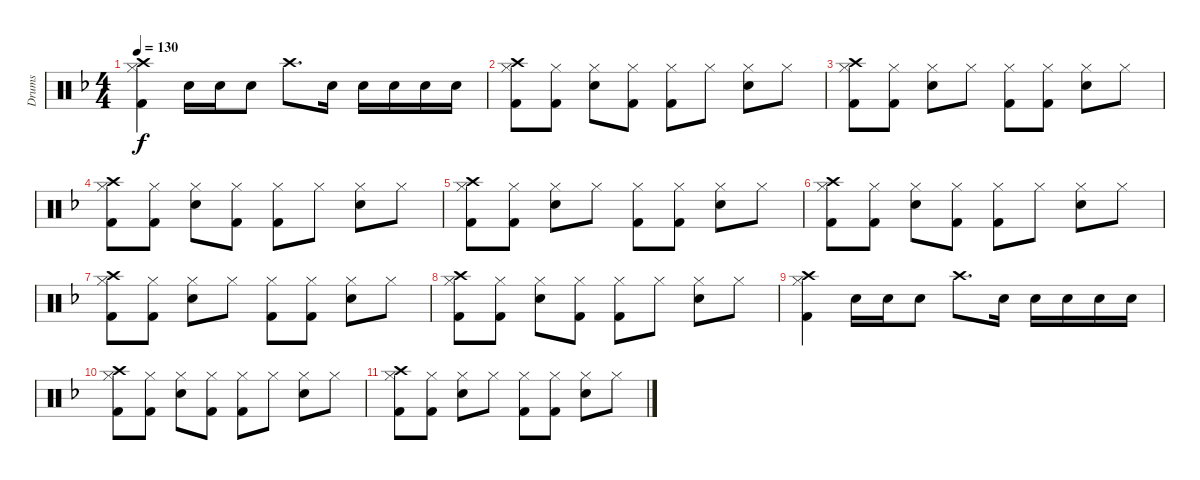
\track ("Drums" "Drums") {instrument percussion}
\staff {score}
\articulation defaults
\ts (4 4)
\tempo 130
\clef neutral
\ks dminor
("Hi-Hat (closed)" "Kick (hit) 2" "Crash high (hit)").4{dy f} "Snare (hit) 2".16 "Snare (hit) 2".16 "Snare (hit) 2".8 "Crash high (hit)".8{d} "Snare (hit) 2".16 "Snare (hit) 2".16 "Snare (hit) 2".16 "Snare (hit) 2".16 "Snare (hit) 2".16 |
("Hi-Hat (closed)" "Kick (hit) 2" "Crash high (hit)").8 ("Hi-Hat (closed)" "Kick (hit) 2").8 ("Hi-Hat (closed)" "Snare (hit) 2").8 ("Hi-Hat (closed)" "Kick (hit) 2").8 ("Hi-Hat (closed)" "Kick (hit) 2").8 "Hi-Hat (closed)".8 ("Hi-Hat (closed)" "Snare (hit) 2").8 "Hi-Hat (closed)".8 |
("Hi-Hat (closed)" "Kick (hit) 2" "Crash high (hit)").8 ("Hi-Hat (closed)" "Kick (hit) 2").8 ("Hi-Hat (closed)" "Snare (hit) 2").8 "Hi-Hat (closed)".8 ("Hi-Hat (closed)" "Kick (hit) 2").8 ("Hi-Hat (closed)" "Kick (hit) 2").8 ("Hi-Hat (closed)" "Snare (hit) 2").8 "Hi-Hat (closed)".8 |
("Hi-Hat (closed)" "Kick (hit) 2" "Crash high (hit)").8 ("Hi-Hat (closed)" "Kick (hit) 2").8 ("Hi-Hat (closed)" "Snare (hit) 2").8 ("Hi-Hat (closed)" "Kick (hit) 2").8 ("Hi-Hat (closed)" "Kick (hit) 2").8 "Hi-Hat (closed)".8 ("Hi-Hat (closed)" "Snare (hit) 2").8 "Hi-Hat (closed)".8 |
("Hi-Hat (closed)" "Kick (hit) 2" "Crash high (hit)").8 ("Hi-Hat (closed)" "Kick (hit) 2").8 ("Hi-Hat (closed)" "Snare (hit) 2").8 "Hi-Hat (closed)".8 ("Hi-Hat (closed)" "Kick (hit) 2").8 ("Hi-Hat (closed)" "Kick (hit) 2").8 ("Hi-Hat (closed)" "Snare (hit) 2").8 "Hi-Hat (closed)".8 |
("Hi-Hat (closed)" "Kick (hit) 2" "Crash high (hit)").8 ("Hi-Hat (closed)" "Kick (hit) 2").8 ("Hi-Hat (closed)" "Snare (hit) 2").8 ("Hi-Hat (closed)" "Kick (hit) 2").8 ("Hi-Hat (closed)" "Kick (hit) 2").8 "Hi-Hat (closed)".8 ("Hi-Hat (closed)" "Snare (hit) 2").8 "Hi-Hat (closed)".8 |
("Hi-Hat (closed)" "Kick (hit) 2" "Crash high (hit)").8 ("Hi-Hat (closed)" "Kick (hit) 2").8 ("Hi-Hat (closed)" "Snare (hit) 2").8 "Hi-Hat (closed)".8 ("Hi-Hat (closed)" "Kick (hit) 2").8 ("Hi-Hat (closed)" "Kick (hit) 2").8 ("Hi-Hat (closed)" "Snare (hit) 2").8 "Hi-Hat (closed)".8 |
("Hi-Hat (closed)" "Kick (hit) 2" "Crash high (hit)").8 ("Hi-Hat (closed)" "Kick (hit) 2").8 ("Hi-Hat (closed)" "Snare (hit) 2").8 ("Hi-Hat (closed)" "Kick (hit) 2").8 ("Hi-Hat (closed)" "Kick (hit) 2").8 "Hi-Hat (closed)".8 ("Hi-Hat (closed)" "Snare (hit) 2").8 "Hi-Hat (closed)".8 |
("Hi-Hat (closed)" "Kick (hit) 2" "Crash high (hit)").4 "Snare (hit) 2".16 "Snare (hit) 2".16 "Snare (hit) 2".8 "Crash high (hit)".8{d} "Snare (hit) 2".16 "Snare (hit) 2".16 "Snare (hit) 2".16 "Snare (hit) 2".16 "Snare (hit) 2".16 |
("Hi-Hat (closed)" "Kick (hit) 2" "Crash high (hit)").8 ("Hi-Hat (closed)" "Kick (hit) 2").8 ("Hi-Hat (closed)" "Snare (hit) 2").8 ("Hi-Hat (closed)" "Kick (hit) 2").8 ("Hi-Hat (closed)" "Kick (hit) 2").8 "Hi-Hat (closed)".8 ("Hi-Hat (closed)" "Snare (hit) 2").8 "Hi-Hat (closed)".8 |
("Hi-Hat (closed)" "Kick (hit) 2" "Crash high (hit)").8 ("Hi-Hat (closed)" "Kick (hit) 2").8 ("Hi-Hat (closed)" "Snare (hit) 2").8 "Hi-Hat (closed)".8 ("Hi-Hat (closed)" "Kick (hit) 2").8 ("Hi-Hat (closed)" "Kick (hit) 2").8 ("Hi-Hat (closed)" "Snare (hit) 2").8 "Hi-Hat (closed)".8
